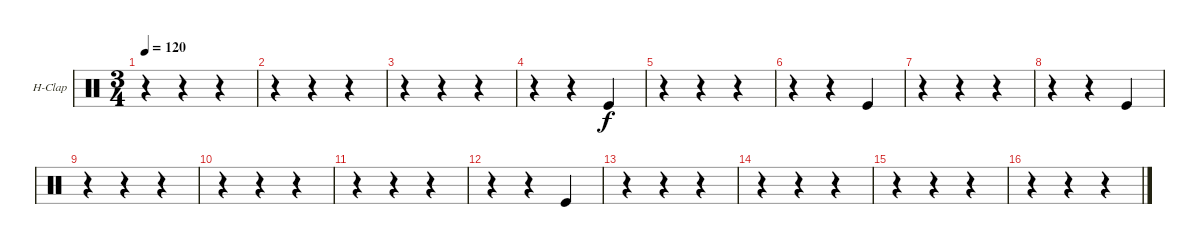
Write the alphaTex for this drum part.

\bracketExtendMode groupsimilarinstruments
\firstSystemTrackNameOrientation horizontal
\otherSystemsTrackNameOrientation horizontal
\track ("Hand Clap" "H-Clap") {instrument percussion}
\staff {score}
\articulation defaults
\ts (3 4)
\tempo 120
\clef neutral
\ks c
r.4{dy f} r.4 r.4 |
r.4 r.4 r.4 |
r.4 r.4 r.4 |
r.4 r.4 "Kick (hit)".4 |
r.4 r.4 r.4 |
r.4 r.4 "Kick (hit)".4 |
r.4 r.4 r.4 |
r.4 r.4 "Kick (hit)".4 |
r.4 r.4 r.4 |
r.4 r.4 r.4 |
r.4 r.4 r.4 |
r.4 r.4 "Kick (hit)".4 |
r.4 r.4 r.4 |
r.4 r.4 r.4 |
r.4 r.4 r.4 |
r.4 r.4 r.4
